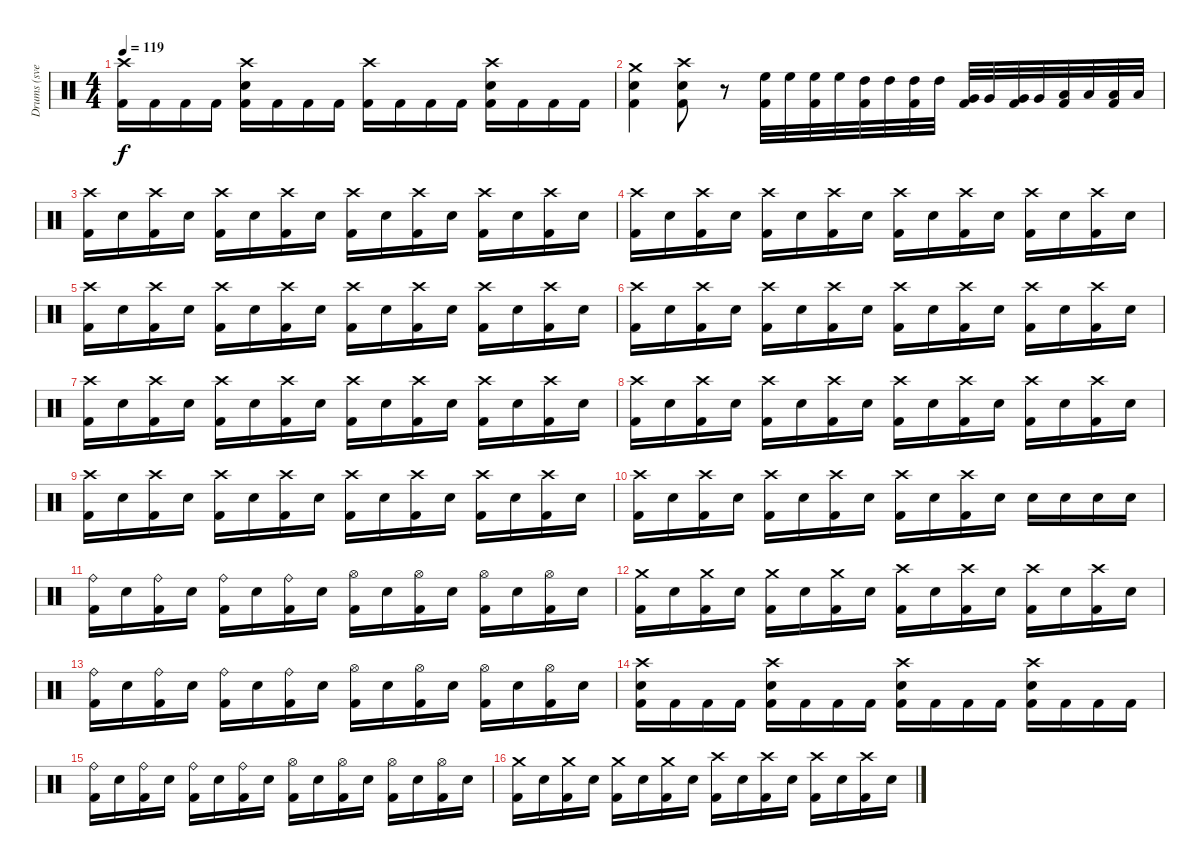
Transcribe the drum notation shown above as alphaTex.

\track ("Drums (svelle)" "Drums (sve") {instrument percussion}
\staff {score}
\articulation defaults
\ts (4 4)
\tempo 119
\clef neutral
\ks c
("Crash high (hit)" "Kick (hit) 2").16{dy f} "Kick (hit) 2".16 "Kick (hit) 2".16 "Kick (hit) 2".16 ("Crash high (hit)" "Electric Snare (hit)" "Kick (hit) 2").16 "Kick (hit) 2".16 "Kick (hit) 2".16 "Kick (hit) 2".16 ("Crash high (hit)" "Kick (hit) 2").16 "Kick (hit) 2".16 "Kick (hit) 2".16 "Kick (hit) 2".16 ("Crash high (hit)" "Electric Snare (hit)" "Kick (hit) 2").16 "Kick (hit) 2".16 "Kick (hit) 2".16 "Kick (hit) 2".16 |
("Crash medium (hit)" "Electric Snare (hit)" "Kick (hit) 2").4 ("Crash high (hit)" "Electric Snare (hit)" "Kick (hit) 2").8 r.8 ("High Floor Tom (hit)" "Kick (hit) 2").32 "High Floor Tom (hit)".32 ("High Floor Tom (hit)" "Kick (hit) 2").32 "High Floor Tom (hit)".32 ("High Tom (hit)" "Kick (hit) 2").32 "High Tom (hit)".32 ("High Tom (hit)" "Kick (hit) 2").32 "High Tom (hit)".32 ("Very Low Tom (hit)" "Kick (hit) 2").32 "Very Low Tom (hit)".32 ("Very Low Tom (hit)" "Kick (hit) 2").32 "Very Low Tom (hit)".32 ("Low Floor Tom (hit)" "Kick (hit) 2").32 "Low Floor Tom (hit)".32 ("Low Floor Tom (hit)" "Kick (hit) 2").32 "Low Floor Tom (hit)".32 |
("Crash high (hit)" "Kick (hit) 2").16 "Electric Snare (hit)".16 ("Crash high (hit)" "Kick (hit) 2").16 "Electric Snare (hit)".16 ("Crash high (hit)" "Kick (hit) 2").16 "Electric Snare (hit)".16 ("Crash high (hit)" "Kick (hit) 2").16 "Electric Snare (hit)".16 ("Crash high (hit)" "Kick (hit) 2").16 "Electric Snare (hit)".16 ("Crash high (hit)" "Kick (hit) 2").16 "Electric Snare (hit)".16 ("Crash high (hit)" "Kick (hit) 2").16 "Electric Snare (hit)".16 ("Crash high (hit)" "Kick (hit) 2").16 "Electric Snare (hit)".16 |
("Crash high (hit)" "Kick (hit) 2").16 "Electric Snare (hit)".16 ("Crash high (hit)" "Kick (hit) 2").16 "Electric Snare (hit)".16 ("Crash high (hit)" "Kick (hit) 2").16 "Electric Snare (hit)".16 ("Crash high (hit)" "Kick (hit) 2").16 "Electric Snare (hit)".16 ("Crash high (hit)" "Kick (hit) 2").16 "Electric Snare (hit)".16 ("Crash high (hit)" "Kick (hit) 2").16 "Electric Snare (hit)".16 ("Crash high (hit)" "Kick (hit) 2").16 "Electric Snare (hit)".16 ("Crash high (hit)" "Kick (hit) 2").16 "Electric Snare (hit)".16 |
("Crash high (hit)" "Kick (hit) 2").16 "Electric Snare (hit)".16 ("Crash high (hit)" "Kick (hit) 2").16 "Electric Snare (hit)".16 ("Crash high (hit)" "Kick (hit) 2").16 "Electric Snare (hit)".16 ("Crash high (hit)" "Kick (hit) 2").16 "Electric Snare (hit)".16 ("Crash high (hit)" "Kick (hit) 2").16 "Electric Snare (hit)".16 ("Crash high (hit)" "Kick (hit) 2").16 "Electric Snare (hit)".16 ("Crash high (hit)" "Kick (hit) 2").16 "Electric Snare (hit)".16 ("Crash high (hit)" "Kick (hit) 2").16 "Electric Snare (hit)".16 |
("Crash high (hit)" "Kick (hit) 2").16 "Electric Snare (hit)".16 ("Crash high (hit)" "Kick (hit) 2").16 "Electric Snare (hit)".16 ("Crash high (hit)" "Kick (hit) 2").16 "Electric Snare (hit)".16 ("Crash high (hit)" "Kick (hit) 2").16 "Electric Snare (hit)".16 ("Crash high (hit)" "Kick (hit) 2").16 "Electric Snare (hit)".16 ("Crash high (hit)" "Kick (hit) 2").16 "Electric Snare (hit)".16 ("Crash high (hit)" "Kick (hit) 2").16 "Electric Snare (hit)".16 ("Crash high (hit)" "Kick (hit) 2").16 "Electric Snare (hit)".16 |
("Crash high (hit)" "Kick (hit) 2").16 "Electric Snare (hit)".16 ("Crash high (hit)" "Kick (hit) 2").16 "Electric Snare (hit)".16 ("Crash high (hit)" "Kick (hit) 2").16 "Electric Snare (hit)".16 ("Crash high (hit)" "Kick (hit) 2").16 "Electric Snare (hit)".16 ("Crash high (hit)" "Kick (hit) 2").16 "Electric Snare (hit)".16 ("Crash high (hit)" "Kick (hit) 2").16 "Electric Snare (hit)".16 ("Crash high (hit)" "Kick (hit) 2").16 "Electric Snare (hit)".16 ("Crash high (hit)" "Kick (hit) 2").16 "Electric Snare (hit)".16 |
("Crash high (hit)" "Kick (hit) 2").16 "Electric Snare (hit)".16 ("Crash high (hit)" "Kick (hit) 2").16 "Electric Snare (hit)".16 ("Crash high (hit)" "Kick (hit) 2").16 "Electric Snare (hit)".16 ("Crash high (hit)" "Kick (hit) 2").16 "Electric Snare (hit)".16 ("Crash high (hit)" "Kick (hit) 2").16 "Electric Snare (hit)".16 ("Crash high (hit)" "Kick (hit) 2").16 "Electric Snare (hit)".16 ("Crash high (hit)" "Kick (hit) 2").16 "Electric Snare (hit)".16 ("Crash high (hit)" "Kick (hit) 2").16 "Electric Snare (hit)".16 |
("Crash high (hit)" "Kick (hit) 2").16 "Electric Snare (hit)".16 ("Crash high (hit)" "Kick (hit) 2").16 "Electric Snare (hit)".16 ("Crash high (hit)" "Kick (hit) 2").16 "Electric Snare (hit)".16 ("Crash high (hit)" "Kick (hit) 2").16 "Electric Snare (hit)".16 ("Crash high (hit)" "Kick (hit) 2").16 "Electric Snare (hit)".16 ("Crash high (hit)" "Kick (hit) 2").16 "Electric Snare (hit)".16 ("Crash high (hit)" "Kick (hit) 2").16 "Electric Snare (hit)".16 ("Crash high (hit)" "Kick (hit) 2").16 "Electric Snare (hit)".16 |
("Crash high (hit)" "Kick (hit) 2").16 "Electric Snare (hit)".16 ("Crash high (hit)" "Kick (hit) 2").16 "Electric Snare (hit)".16 ("Crash high (hit)" "Kick (hit) 2").16 "Electric Snare (hit)".16 ("Crash high (hit)" "Kick (hit) 2").16 "Electric Snare (hit)".16 ("Crash high (hit)" "Kick (hit) 2").16 "Electric Snare (hit)".16 ("Crash high (hit)" "Kick (hit) 2").16 "Electric Snare (hit)".16 "Electric Snare (hit)".16 "Electric Snare (hit)".16 "Electric Snare (hit)".16 "Electric Snare (hit)".16 |
("Ride (bell)" "Kick (hit) 2").16 "Electric Snare (hit)".16 ("Ride (bell)" "Kick (hit) 2").16 "Electric Snare (hit)".16 ("Ride (bell)" "Kick (hit) 2").16 "Electric Snare (hit)".16 ("Ride (bell)" "Kick (hit) 2").16 "Electric Snare (hit)".16 ("Hi-Hat (open)" "Kick (hit) 2").16 "Electric Snare (hit)".16 ("Hi-Hat (open)" "Kick (hit) 2").16 "Electric Snare (hit)".16 ("Hi-Hat (open)" "Kick (hit) 2").16 "Electric Snare (hit)".16 ("Hi-Hat (open)" "Kick (hit) 2").16 "Electric Snare (hit)".16 |
("Crash medium (hit)" "Kick (hit) 2").16 "Electric Snare (hit)".16 ("Crash medium (hit)" "Kick (hit) 2").16 "Electric Snare (hit)".16 ("Crash medium (hit)" "Kick (hit) 2").16 "Electric Snare (hit)".16 ("Crash medium (hit)" "Kick (hit) 2").16 "Electric Snare (hit)".16 ("Crash high (hit)" "Kick (hit) 2").16 "Electric Snare (hit)".16 ("Crash high (hit)" "Kick (hit) 2").16 "Electric Snare (hit)".16 ("Crash high (hit)" "Kick (hit) 2").16 "Electric Snare (hit)".16 ("Crash high (hit)" "Kick (hit) 2").16 "Electric Snare (hit)".16 |
("Ride (bell)" "Kick (hit) 2").16 "Electric Snare (hit)".16 ("Ride (bell)" "Kick (hit) 2").16 "Electric Snare (hit)".16 ("Ride (bell)" "Kick (hit) 2").16 "Electric Snare (hit)".16 ("Ride (bell)" "Kick (hit) 2").16 "Electric Snare (hit)".16 ("Hi-Hat (open)" "Kick (hit) 2").16 "Electric Snare (hit)".16 ("Hi-Hat (open)" "Kick (hit) 2").16 "Electric Snare (hit)".16 ("Hi-Hat (open)" "Kick (hit) 2").16 "Electric Snare (hit)".16 ("Hi-Hat (open)" "Kick (hit) 2").16 "Electric Snare (hit)".16 |
("Crash high (hit)" "Electric Snare (hit)" "Kick (hit) 2").16 "Kick (hit) 2".16 "Kick (hit) 2".16 "Kick (hit) 2".16 ("Crash high (hit)" "Electric Snare (hit)" "Kick (hit) 2").16 "Kick (hit) 2".16 "Kick (hit) 2".16 "Kick (hit) 2".16 ("Crash high (hit)" "Electric Snare (hit)" "Kick (hit) 2").16 "Kick (hit) 2".16 "Kick (hit) 2".16 "Kick (hit) 2".16 ("Crash high (hit)" "Electric Snare (hit)" "Kick (hit) 2").16 "Kick (hit) 2".16 "Kick (hit) 2".16 "Kick (hit) 2".16 |
("Ride (bell)" "Kick (hit) 2").16 "Electric Snare (hit)".16 ("Ride (bell)" "Kick (hit) 2").16 "Electric Snare (hit)".16 ("Ride (bell)" "Kick (hit) 2").16 "Electric Snare (hit)".16 ("Ride (bell)" "Kick (hit) 2").16 "Electric Snare (hit)".16 ("Hi-Hat (open)" "Kick (hit) 2").16 "Electric Snare (hit)".16 ("Hi-Hat (open)" "Kick (hit) 2").16 "Electric Snare (hit)".16 ("Hi-Hat (open)" "Kick (hit) 2").16 "Electric Snare (hit)".16 ("Hi-Hat (open)" "Kick (hit) 2").16 "Electric Snare (hit)".16 |
("Crash medium (hit)" "Kick (hit) 2").16 "Electric Snare (hit)".16 ("Crash medium (hit)" "Kick (hit) 2").16 "Electric Snare (hit)".16 ("Crash medium (hit)" "Kick (hit) 2").16 "Electric Snare (hit)".16 ("Crash medium (hit)" "Kick (hit) 2").16 "Electric Snare (hit)".16 ("Crash high (hit)" "Kick (hit) 2").16 "Electric Snare (hit)".16 ("Crash high (hit)" "Kick (hit) 2").16 "Electric Snare (hit)".16 ("Crash high (hit)" "Kick (hit) 2").16 "Electric Snare (hit)".16 ("Crash high (hit)" "Kick (hit) 2").16 "Electric Snare (hit)".16
